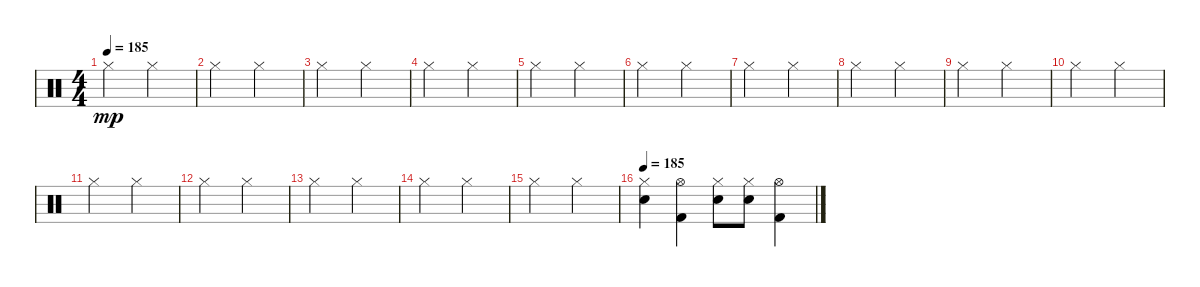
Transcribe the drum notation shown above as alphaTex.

\track "" {instrument percussion}
\staff {score}
\articulation defaults
\ts (4 4)
\tempo 185
\clef neutral
\ks c "Hi-Hat (closed)".2{dy mp} "Hi-Hat (closed)".2
|
"Hi-Hat (closed)".2 "Hi-Hat (closed)".2 |
"Hi-Hat (closed)".2 "Hi-Hat (closed)".2 |
"Hi-Hat (closed)".2 "Hi-Hat (closed)".2 |
"Hi-Hat (closed)".2 "Hi-Hat (closed)".2 |
"Hi-Hat (closed)".2 "Hi-Hat (closed)".2 |
"Hi-Hat (closed)".2 "Hi-Hat (closed)".2 |
"Hi-Hat (closed)".2 "Hi-Hat (closed)".2 |
"Hi-Hat (closed)".2 "Hi-Hat (closed)".2 |
"Hi-Hat (closed)".2 "Hi-Hat (closed)".2 |
"Hi-Hat (closed)".2 "Hi-Hat (closed)".2 |
"Hi-Hat (closed)".2 "Hi-Hat (closed)".2 |
"Hi-Hat (closed)".2 "Hi-Hat (closed)".2 |
"Hi-Hat (closed)".2 "Hi-Hat (closed)".2 |
"Hi-Hat (closed)".2 "Hi-Hat (closed)".2 |
\tempo 185
("Hi-Hat (closed)" "Electric Snare (hit)").4 ("Hi-Hat (open)" "Kick (hit) 2").4 ("Hi-Hat (closed)" "Electric Snare (hit)").8 ("Hi-Hat (closed)" "Electric Snare (hit)").8 ("Hi-Hat (open)" "Kick (hit) 2").4
